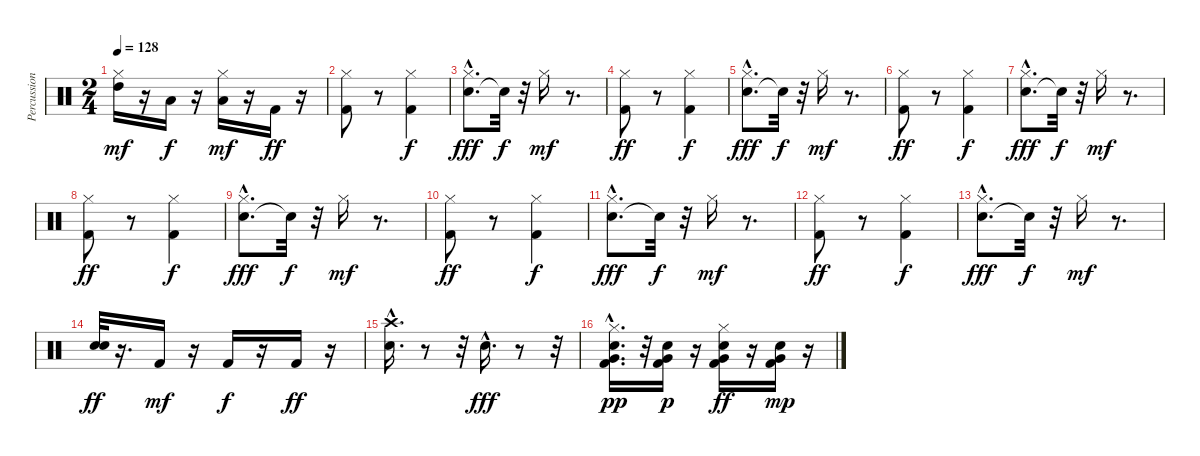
\track ("Percussion" "Percussion") {instrument percussion}
\staff {score}
\articulation defaults
\ts (2 4)
\tempo 128
\clef neutral
\ks c
("Hi-Hat (closed)" "High Tom (hit)").16{dy mf} r.16 "Low Tom (hit)".16{dy f} r.16 ("Hi-Hat (closed)" "Low Floor Tom (hit)").16{dy mf} r.16 "Kick (hit) 2".16{dy ff} r.16 |
("Hi-Hat (closed)" "Kick (hit) 2").8 r.8 ("Kick (hit) 2" "Hi-Hat (closed)").4{dy f} |
("Electric Snare (hit)"{hac} "Hi-Hat (closed)").8{d dy fff} "Snare (hit)"{t}.32{dy f} r.32 "Hi-Hat (closed)".16{dy mf} r.8{d} |
("Hi-Hat (closed)" "Kick (hit) 2").8{dy ff} r.8 ("Kick (hit) 2" "Hi-Hat (closed)").4{dy f} |
("Electric Snare (hit)"{hac} "Hi-Hat (closed)").8{d dy fff} "Snare (hit)"{t}.32{dy f} r.32 "Hi-Hat (closed)".16{dy mf} r.8{d} |
("Hi-Hat (closed)" "Kick (hit) 2").8{dy ff} r.8 ("Kick (hit) 2" "Hi-Hat (closed)").4{dy f} |
("Electric Snare (hit)"{hac} "Hi-Hat (closed)").8{d dy fff} "Snare (hit)"{t}.32{dy f} r.32 "Hi-Hat (closed)".16{dy mf} r.8{d} |
("Hi-Hat (closed)" "Kick (hit) 2").8{dy ff} r.8 ("Kick (hit) 2" "Hi-Hat (closed)").4{dy f} |
("Electric Snare (hit)"{hac} "Hi-Hat (closed)").8{d dy fff} "Snare (hit)"{t}.32{dy f} r.32 "Hi-Hat (closed)".16{dy mf} r.8{d} |
("Hi-Hat (closed)" "Kick (hit) 2").8{dy ff} r.8 ("Kick (hit) 2" "Hi-Hat (closed)").4{dy f} |
("Electric Snare (hit)"{hac} "Hi-Hat (closed)").8{d dy fff} "Snare (hit)"{t}.32{dy f} r.32 "Hi-Hat (closed)".16{dy mf} r.8{d} |
("Hi-Hat (closed)" "Kick (hit) 2").8{dy ff} r.8 ("Kick (hit) 2" "Hi-Hat (closed)").4{dy f} |
("Electric Snare (hit)"{hac} "Hi-Hat (closed)").8{d dy fff} "Snare (hit)"{t}.32{dy f} r.32 "Hi-Hat (closed)".16{dy mf} r.8{d} |
("Electric Snare (hit)" "Electric Snare (hit)").32{dy ff} r.16{d} "Kick (hit) 2".16{dy mf} r.16 "Kick (hit) 2".16{dy f} r.16 "Kick (hit) 2".16{dy ff} r.16 |
("Crash high (hit)" "Electric Snare (hit)"{hac}).16{d} r.8 r.32 "Electric Snare (hit)"{hac}.16{d dy fff} r.8 r.32 |
("Very Low Tom (hit)" "Electric Snare (hit)" "Hi-Hat (closed)"{hac} "Kick (hit) 2").16{d dy pp} r.32 ("Electric Snare (hit)" "Very Low Tom (hit)" "Kick (hit) 2").16{dy p} r.16 ("Very Low Tom (hit)" "Electric Snare (hit)" "Kick (hit) 2" "Hi-Hat (closed)").16{dy ff} r.16 ("Electric Snare (hit)" "Very Low Tom (hit)" "Kick (hit) 2").16{dy mp} r.16
